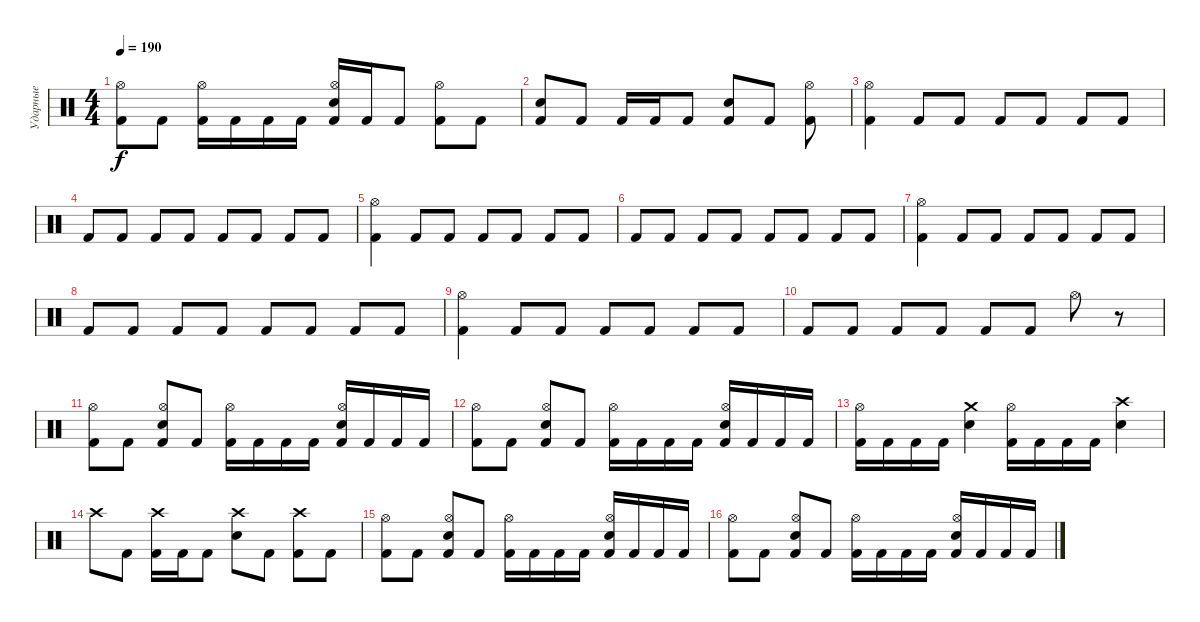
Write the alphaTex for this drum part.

\track ("Ударные" "Ударные") {instrument percussion}
\staff {score}
\articulation defaults
\ts (4 4)
\tempo 190
\clef neutral
\ks c
("Kick (hit) 2" "Hi-Hat (open)").8{dy f} "Kick (hit) 2".8 ("Hi-Hat (open)" "Kick (hit) 2").16 "Kick (hit) 2".16 "Kick (hit) 2".16 "Kick (hit) 2".16 ("Hi-Hat (open)" "Electric Snare (hit)" "Kick (hit) 2").16 "Kick (hit) 2".16 "Kick (hit) 2".8 ("Hi-Hat (open)" "Kick (hit) 2").8 "Kick (hit) 2".8 |
("Kick (hit) 2" "Snare (hit) 2").8 "Kick (hit) 2".8 "Kick (hit) 2".16 "Kick (hit) 2".16 "Kick (hit) 2".8 ("Kick (hit) 2" "Snare (hit) 2").8 "Kick (hit) 2".8 ("Kick (hit) 2" "Hi-Hat (open)").8 |
("Kick (hit) 2" "Hi-Hat (open)").4 "Kick (hit) 2".8 "Kick (hit) 2".8 "Kick (hit) 2".8 "Kick (hit) 2".8 "Kick (hit) 2".8 "Kick (hit) 2".8 |
"Kick (hit) 2".8 "Kick (hit) 2".8 "Kick (hit) 2".8 "Kick (hit) 2".8 "Kick (hit) 2".8 "Kick (hit) 2".8 "Kick (hit) 2".8 "Kick (hit) 2".8 |
("Kick (hit) 2" "Hi-Hat (open)").4 "Kick (hit) 2".8 "Kick (hit) 2".8 "Kick (hit) 2".8 "Kick (hit) 2".8 "Kick (hit) 2".8 "Kick (hit) 2".8 |
"Kick (hit) 2".8 "Kick (hit) 2".8 "Kick (hit) 2".8 "Kick (hit) 2".8 "Kick (hit) 2".8 "Kick (hit) 2".8 "Kick (hit) 2".8 "Kick (hit) 2".8 |
("Kick (hit) 2" "Hi-Hat (open)").4 "Kick (hit) 2".8 "Kick (hit) 2".8 "Kick (hit) 2".8 "Kick (hit) 2".8 "Kick (hit) 2".8 "Kick (hit) 2".8 |
"Kick (hit) 2".8 "Kick (hit) 2".8 "Kick (hit) 2".8 "Kick (hit) 2".8 "Kick (hit) 2".8 "Kick (hit) 2".8 "Kick (hit) 2".8 "Kick (hit) 2".8 |
("Kick (hit) 2" "Hi-Hat (open)").4 "Kick (hit) 2".8 "Kick (hit) 2".8 "Kick (hit) 2".8 "Kick (hit) 2".8 "Kick (hit) 2".8 "Kick (hit) 2".8 |
"Kick (hit) 2".8 "Kick (hit) 2".8 "Kick (hit) 2".8 "Kick (hit) 2".8 "Kick (hit) 2".8 "Kick (hit) 2".8 "Hi-Hat (open)".8 r.8 |
("Hi-Hat (open)" "Kick (hit) 2").8 "Kick (hit) 2".8 ("Hi-Hat (open)" "Electric Snare (hit)" "Kick (hit) 2").8 "Kick (hit) 2".8 ("Hi-Hat (open)" "Kick (hit) 2").16 "Kick (hit) 2".16 "Kick (hit) 2".16 "Kick (hit) 2".16 ("Hi-Hat (open)" "Electric Snare (hit)" "Kick (hit) 2").16 "Kick (hit) 2".16 "Kick (hit) 2".16 "Kick (hit) 2".16 |
("Hi-Hat (open)" "Kick (hit) 2").8 "Kick (hit) 2".8 ("Hi-Hat (open)" "Electric Snare (hit)" "Kick (hit) 2").8 "Kick (hit) 2".8 ("Hi-Hat (open)" "Kick (hit) 2").16 "Kick (hit) 2".16 "Kick (hit) 2".16 "Kick (hit) 2".16 ("Hi-Hat (open)" "Electric Snare (hit)" "Kick (hit) 2").16 "Kick (hit) 2".16 "Kick (hit) 2".16 "Kick (hit) 2".16 |
("Hi-Hat (open)" "Kick (hit) 2").16 "Kick (hit) 2".16 "Kick (hit) 2".16 "Kick (hit) 2".16 ("Crash medium (hit)" "Electric Snare (hit)").4 ("Hi-Hat (open)" "Kick (hit) 2").16 "Kick (hit) 2".16 "Kick (hit) 2".16 "Kick (hit) 2".16 ("Crash high (hit)" "Electric Snare (hit)").4 |
"Crash high (hit)".8 "Kick (hit) 2".8 ("Crash high (hit)" "Kick (hit) 2").16 "Kick (hit) 2".16 "Kick (hit) 2".8 ("Crash high (hit)" "Electric Snare (hit)").8 "Kick (hit) 2".8 ("Crash high (hit)" "Kick (hit) 2").8 "Kick (hit) 2".8 |
("Hi-Hat (open)" "Kick (hit) 2").8 "Kick (hit) 2".8 ("Hi-Hat (open)" "Electric Snare (hit)" "Kick (hit) 2").8 "Kick (hit) 2".8 ("Hi-Hat (open)" "Kick (hit) 2").16 "Kick (hit) 2".16 "Kick (hit) 2".16 "Kick (hit) 2".16 ("Hi-Hat (open)" "Electric Snare (hit)" "Kick (hit) 2").16 "Kick (hit) 2".16 "Kick (hit) 2".16 "Kick (hit) 2".16 |
("Hi-Hat (open)" "Kick (hit) 2").8 "Kick (hit) 2".8 ("Hi-Hat (open)" "Electric Snare (hit)" "Kick (hit) 2").8 "Kick (hit) 2".8 ("Hi-Hat (open)" "Kick (hit) 2").16 "Kick (hit) 2".16 "Kick (hit) 2".16 "Kick (hit) 2".16 ("Hi-Hat (open)" "Electric Snare (hit)" "Kick (hit) 2").16 "Kick (hit) 2".16 "Kick (hit) 2".16 "Kick (hit) 2".16
